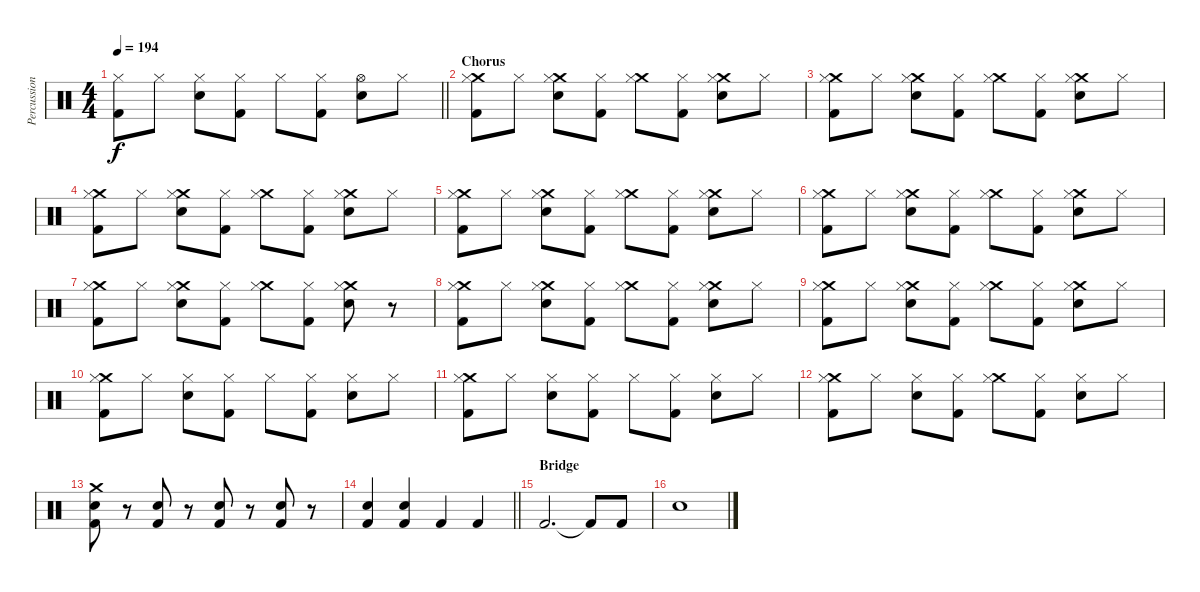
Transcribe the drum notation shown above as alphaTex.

\track ("Percussion" "Percussion") {instrument percussion}
\staff {score}
\articulation defaults
\ts (4 4)
\tempo 194
\clef neutral
\barLineRight lightlight
\ks c
("Hi-Hat (closed)" "Kick (hit) 2").8{dy f} "Hi-Hat (closed)".8 ("Hi-Hat (closed)" "Snare (hit) 2").8 ("Hi-Hat (closed)" "Kick (hit) 2").8 "Hi-Hat (closed)".8 ("Hi-Hat (closed)" "Kick (hit) 2").8 ("Hi-Hat (open)" "Snare (hit) 2").8 "Hi-Hat (closed)".8 |
\section ("" "Chorus")
("Crash medium (hit)" "Kick (hit) 2" "Hi-Hat (closed)").8 "Hi-Hat (closed)".8 ("Crash medium (hit)" "Snare (hit) 2" "Hi-Hat (closed)").8 ("Kick (hit) 2" "Hi-Hat (closed)").8 ("Crash medium (hit)" "Hi-Hat (closed)").8 ("Kick (hit) 2" "Hi-Hat (closed)").8 ("Crash medium (hit)" "Snare (hit) 2" "Hi-Hat (closed)").8 "Hi-Hat (closed)".8 |
("Crash medium (hit)" "Kick (hit) 2" "Hi-Hat (closed)").8 "Hi-Hat (closed)".8 ("Crash medium (hit)" "Snare (hit) 2" "Hi-Hat (closed)").8 ("Kick (hit) 2" "Hi-Hat (closed)").8 ("Crash medium (hit)" "Hi-Hat (closed)").8 ("Kick (hit) 2" "Hi-Hat (closed)").8 ("Crash medium (hit)" "Snare (hit) 2" "Hi-Hat (closed)").8 "Hi-Hat (closed)".8 |
("Crash medium (hit)" "Kick (hit) 2" "Hi-Hat (closed)").8 "Hi-Hat (closed)".8 ("Crash medium (hit)" "Snare (hit) 2" "Hi-Hat (closed)").8 ("Kick (hit) 2" "Hi-Hat (closed)").8 ("Crash medium (hit)" "Hi-Hat (closed)").8 ("Kick (hit) 2" "Hi-Hat (closed)").8 ("Crash medium (hit)" "Snare (hit) 2" "Hi-Hat (closed)").8 "Hi-Hat (closed)".8 |
("Crash medium (hit)" "Kick (hit) 2" "Hi-Hat (closed)").8 "Hi-Hat (closed)".8 ("Crash medium (hit)" "Snare (hit) 2" "Hi-Hat (closed)").8 ("Kick (hit) 2" "Hi-Hat (closed)").8 ("Crash medium (hit)" "Hi-Hat (closed)").8 ("Kick (hit) 2" "Hi-Hat (closed)").8 ("Crash medium (hit)" "Snare (hit) 2" "Hi-Hat (closed)").8 "Hi-Hat (closed)".8 |
("Crash medium (hit)" "Kick (hit) 2" "Hi-Hat (closed)").8 "Hi-Hat (closed)".8 ("Crash medium (hit)" "Snare (hit) 2" "Hi-Hat (closed)").8 ("Kick (hit) 2" "Hi-Hat (closed)").8 ("Crash medium (hit)" "Hi-Hat (closed)").8 ("Kick (hit) 2" "Hi-Hat (closed)").8 ("Crash medium (hit)" "Snare (hit) 2" "Hi-Hat (closed)").8 "Hi-Hat (closed)".8 |
("Crash medium (hit)" "Kick (hit) 2" "Hi-Hat (closed)").8 "Hi-Hat (closed)".8 ("Crash medium (hit)" "Snare (hit) 2" "Hi-Hat (closed)").8 ("Kick (hit) 2" "Hi-Hat (closed)").8 ("Crash medium (hit)" "Hi-Hat (closed)").8 ("Kick (hit) 2" "Hi-Hat (closed)").8 ("Crash medium (hit)" "Snare (hit) 2" "Hi-Hat (closed)").8 r.8 |
("Crash medium (hit)" "Kick (hit) 2" "Hi-Hat (closed)").8 "Hi-Hat (closed)".8 ("Crash medium (hit)" "Snare (hit) 2" "Hi-Hat (closed)").8 ("Kick (hit) 2" "Hi-Hat (closed)").8 ("Crash medium (hit)" "Hi-Hat (closed)").8 ("Kick (hit) 2" "Hi-Hat (closed)").8 ("Crash medium (hit)" "Snare (hit) 2" "Hi-Hat (closed)").8 "Hi-Hat (closed)".8 |
("Crash medium (hit)" "Kick (hit) 2" "Hi-Hat (closed)").8 "Hi-Hat (closed)".8 ("Crash medium (hit)" "Snare (hit) 2" "Hi-Hat (closed)").8 ("Kick (hit) 2" "Hi-Hat (closed)").8 ("Crash medium (hit)" "Hi-Hat (closed)").8 ("Kick (hit) 2" "Hi-Hat (closed)").8 ("Crash medium (hit)" "Snare (hit) 2" "Hi-Hat (closed)").8 "Hi-Hat (closed)".8 |
("Crash medium (hit)" "Kick (hit) 2" "Hi-Hat (closed)").8 "Hi-Hat (closed)".8 ("Snare (hit) 2" "Hi-Hat (closed)").8 ("Kick (hit) 2" "Hi-Hat (closed)").8 "Hi-Hat (closed)".8 ("Kick (hit) 2" "Hi-Hat (closed)").8 ("Snare (hit) 2" "Hi-Hat (closed)").8 "Hi-Hat (closed)".8 |
("Crash medium (hit)" "Kick (hit) 2" "Hi-Hat (closed)").8 "Hi-Hat (closed)".8 ("Snare (hit) 2" "Hi-Hat (closed)").8 ("Kick (hit) 2" "Hi-Hat (closed)").8 "Hi-Hat (closed)".8 ("Kick (hit) 2" "Hi-Hat (closed)").8 ("Snare (hit) 2" "Hi-Hat (closed)").8 "Hi-Hat (closed)".8 |
("Crash medium (hit)" "Kick (hit) 2" "Hi-Hat (closed)").8 "Hi-Hat (closed)".8 ("Snare (hit) 2" "Hi-Hat (closed)").8 ("Kick (hit) 2" "Hi-Hat (closed)").8 ("Crash medium (hit)" "Hi-Hat (closed)").8 ("Kick (hit) 2" "Hi-Hat (closed)").8 ("Snare (hit) 2" "Hi-Hat (closed)").8 "Hi-Hat (closed)".8 |
("Crash medium (hit)" "Snare (hit) 2" "Kick (hit) 2").8 r.8 ("Snare (hit) 2" "Kick (hit) 2").8 r.8 ("Snare (hit) 2" "Kick (hit) 2").8 r.8 ("Snare (hit) 2" "Kick (hit) 2").8 r.8 |
\barLineRight lightlight
("Snare (hit) 2" "Kick (hit) 2").4 ("Snare (hit) 2" "Kick (hit) 2").4 "Kick (hit) 2".4 "Kick (hit) 2".4 |
\section ("" "Bridge")
"Kick (hit) 2".2{d} "Kick (hit) 2"{t}.8 "Kick (hit) 2".8 |
"Snare (hit) 2".1
